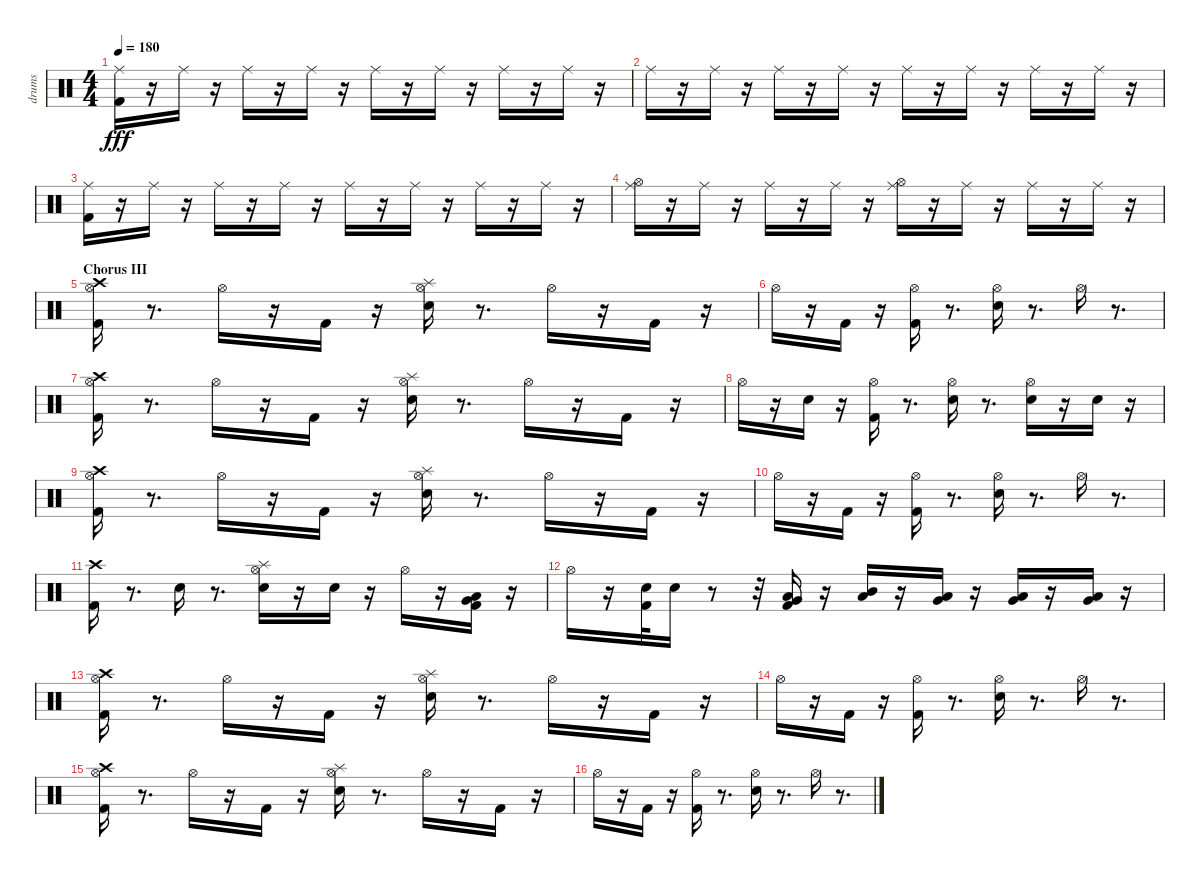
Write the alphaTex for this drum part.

\track ("drums" "drums") {instrument percussion}
\staff {score}
\articulation defaults
\ts (4 4)
\tempo 180
\clef neutral
\ks c
("Kick (hit) 2" "Ride (middle)").16{dy fff} r.16 "Ride (middle)".16 r.16 "Ride (middle)".16 r.16 "Ride (middle)".16 r.16 "Ride (middle)".16 r.16 "Ride (middle)".16 r.16 "Ride (middle)".16 r.16 "Ride (middle)".16 r.16 |
"Ride (middle)".16 r.16 "Ride (middle)".16 r.16 "Ride (middle)".16 r.16 "Ride (middle)".16 r.16 "Ride (middle)".16 r.16 "Ride (middle)".16 r.16 "Ride (middle)".16 r.16 "Ride (middle)".16 r.16 |
("Kick (hit) 2" "Ride (middle)").16 r.16 "Ride (middle)".16 r.16 "Ride (middle)".16 r.16 "Ride (middle)".16 r.16 "Ride (middle)".16 r.16 "Ride (middle)".16 r.16 "Ride (middle)".16 r.16 "Ride (middle)".16 r.16 |
("Hi-Hat (open)" "Ride (middle)").16 r.16 "Ride (middle)".16 r.16 "Ride (middle)".16 r.16 "Ride (middle)".16 r.16 ("Hi-Hat (open)" "Ride (middle)").16 r.16 "Ride (middle)".16 r.16 "Ride (middle)".16 r.16 "Ride (middle)".16 r.16 |
\section ("" "Chorus III")
("Crash high (hit)" "Kick (hit) 2" "Hi-Hat (open)").16 r.8{d} "Hi-Hat (open)".16 r.16 "Kick (hit) 2".16 r.16 ("Electric Snare (hit)" "Hi-Hat (open)" "Splash (hit)").16 r.8{d} "Hi-Hat (open)".16 r.16 "Kick (hit) 2".16 r.16 |
"Hi-Hat (open)".16 r.16 "Kick (hit) 2".16 r.16 ("Hi-Hat (open)" "Kick (hit) 2").16 r.8{d} ("Hi-Hat (open)" "Electric Snare (hit)").16 r.8{d} "Hi-Hat (open)".16 r.8{d} |
("Crash high (hit)" "Kick (hit) 2" "Hi-Hat (open)").16 r.8{d} "Hi-Hat (open)".16 r.16 "Kick (hit) 2".16 r.16 ("Splash (hit)" "Electric Snare (hit)" "Hi-Hat (open)").16 r.8{d} "Hi-Hat (open)".16 r.16 "Kick (hit) 2".16 r.16 |
"Hi-Hat (open)".16 r.16 "Electric Snare (hit)".16 r.16 ("Hi-Hat (open)" "Kick (hit) 2").16 r.8{d} ("Hi-Hat (open)" "Electric Snare (hit)").16 r.8{d} ("Hi-Hat (open)" "Electric Snare (hit)").16 r.16 "Electric Snare (hit)".16 r.16 |
("Crash high (hit)" "Kick (hit) 2" "Hi-Hat (open)").16 r.8{d} "Hi-Hat (open)".16 r.16 "Kick (hit) 2".16 r.16 ("Splash (hit)" "Electric Snare (hit)" "Hi-Hat (open)").16 r.8{d} "Hi-Hat (open)".16 r.16 "Kick (hit) 2".16 r.16 |
"Hi-Hat (open)".16 r.16 "Kick (hit) 2".16 r.16 ("Hi-Hat (open)" "Kick (hit) 2").16 r.8{d} ("Hi-Hat (open)" "Electric Snare (hit)").16 r.8{d} "Hi-Hat (open)".16 r.8{d} |
("Crash high (hit)" "Kick (hit) 2").16 r.8{d} "Electric Snare (hit)".16 r.8{d} ("Splash (hit)" "Hi-Hat (open)" "Electric Snare (hit)").16 r.16 "Electric Snare (hit)".16 r.16 "Hi-Hat (open)".16 r.16 ("Very Low Tom (hit)" "Low Floor Tom (hit)" "Kick (hit) 2").16 r.16 |
"Hi-Hat (open)".16 r.16 ("Electric Snare (hit)" "Kick (hit) 2").32 "Electric Snare (hit)".16 r.8 r.32 ("Low Tom (hit)" "Very Low Tom (hit)" "Kick (hit) 2").16 r.16 ("Low Tom (hit)" "Mid Tom (hit)").16 r.16 ("Very Low Tom (hit)" "Low Tom (hit)").16 r.16 ("Low Tom (hit)" "Very Low Tom (hit)").16 r.16 ("Very Low Tom (hit)" "Low Floor Tom (hit)").16 r.16 |
("Crash high (hit)" "Kick (hit) 2" "Hi-Hat (open)").16 r.8{d} "Hi-Hat (open)".16 r.16 "Kick (hit) 2".16 r.16 ("Splash (hit)" "Electric Snare (hit)" "Hi-Hat (open)").16 r.8{d} "Hi-Hat (open)".16 r.16 "Kick (hit) 2".16 r.16 |
"Hi-Hat (open)".16 r.16 "Kick (hit) 2".16 r.16 ("Hi-Hat (open)" "Kick (hit) 2").16 r.8{d} ("Hi-Hat (open)" "Electric Snare (hit)").16 r.8{d} "Hi-Hat (open)".16 r.8{d} |
("Crash high (hit)" "Kick (hit) 2" "Hi-Hat (open)").16 r.8{d} "Hi-Hat (open)".16 r.16 "Kick (hit) 2".16 r.16 ("Splash (hit)" "Electric Snare (hit)" "Hi-Hat (open)").16 r.8{d} "Hi-Hat (open)".16 r.16 "Kick (hit) 2".16 r.16 |
"Hi-Hat (open)".16 r.16 "Kick (hit) 2".16 r.16 ("Hi-Hat (open)" "Kick (hit) 2").16 r.8{d} ("Hi-Hat (open)" "Electric Snare (hit)").16 r.8{d} "Hi-Hat (open)".16 r.8{d}
